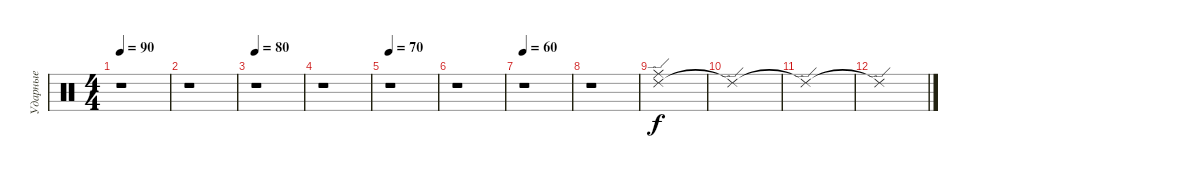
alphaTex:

\track ("Ударные" "Ударные") {instrument percussion}
\staff {score}
\articulation defaults
\ts (4 4)
\tempo 90
\clef neutral
\ks c
r.1{dy f} |
r.1 |
\tempo 80
r.1 |
r.1 |
\tempo 70
r.1 |
r.1 |
\tempo 60
r.1 |
r.1 |
("Ride (edge) 2" "Ride (middle)").1 |
"Ride (edge) 2"{t}.1 |
"Ride (edge) 2"{t}.1 |
"Ride (edge) 2"{t}.1
